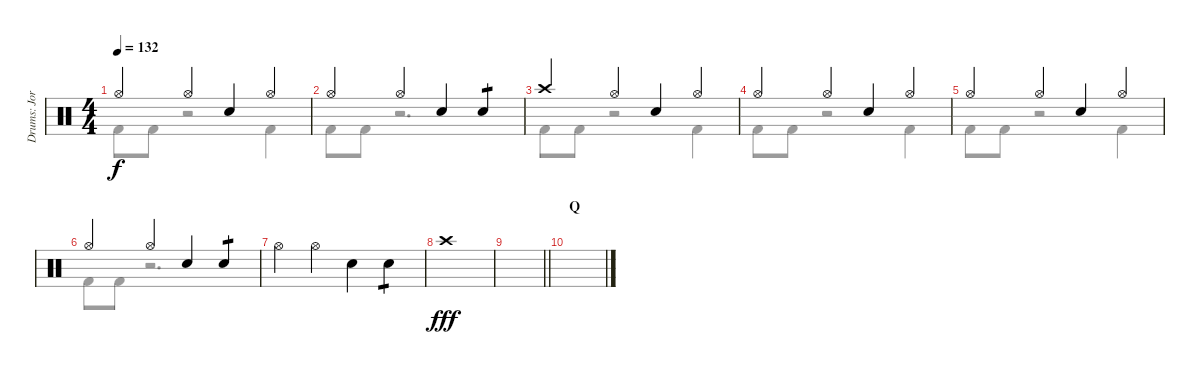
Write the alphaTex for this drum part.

\track ("Drums: Jorg" "Drums: Jor") {instrument percussion}
\staff {score}
\articulation defaults
\voice
\ts (4 4)
\tempo 132
\clef neutral
\ks c "Hi-Hat (open)".4{dy f} "Hi-Hat (open)".4 "Snare (hit) 2".4 "Hi-Hat (open)".4
|
"Hi-Hat (open)".4 "Hi-Hat (open)".4 "Snare (hit) 2".4 "Snare (hit) 2".4{tp 1} |
"Crash high (hit)".4 "Hi-Hat (open)".4 "Snare (hit) 2".4 "Hi-Hat (open)".4 |
"Hi-Hat (open)".4 "Hi-Hat (open)".4 "Snare (hit) 2".4 "Hi-Hat (open)".4 |
"Hi-Hat (open)".4 "Hi-Hat (open)".4 "Snare (hit) 2".4 "Hi-Hat (open)".4 |
"Hi-Hat (open)".4 "Hi-Hat (open)".4 "Snare (hit) 2".4 "Snare (hit) 2".4{tp 1} |
"Hi-Hat (open)".4 "Hi-Hat (open)".4 "Snare (hit) 2".4 "Snare (hit) 2".4{tp 1} |
"Crash high (hit)".1{dy fff} |
\barLineRight lightlight
|
\section ("" "Q")
|
|
|
|
|
|
\voice
\clef neutral
\ottava regular
\simile none
\ks c "Kick (hit) 2".8{dy f} "Kick (hit) 2".8
r.2 "Kick (hit) 2".4 |
"Kick (hit) 2".8 "Kick (hit) 2".8 r.2{d} |
"Kick (hit) 2".8 "Kick (hit) 2".8 r.2 "Kick (hit) 2".4 |
"Kick (hit) 2".8 "Kick (hit) 2".8 r.2 "Kick (hit) 2".4 |
"Kick (hit) 2".8 "Kick (hit) 2".8 r.2 "Kick (hit) 2".4 |
"Kick (hit) 2".8 "Kick (hit) 2".8 r.2{d} |
|
|
\barLineRight lightlight
|
|
|
|
|
|
|
